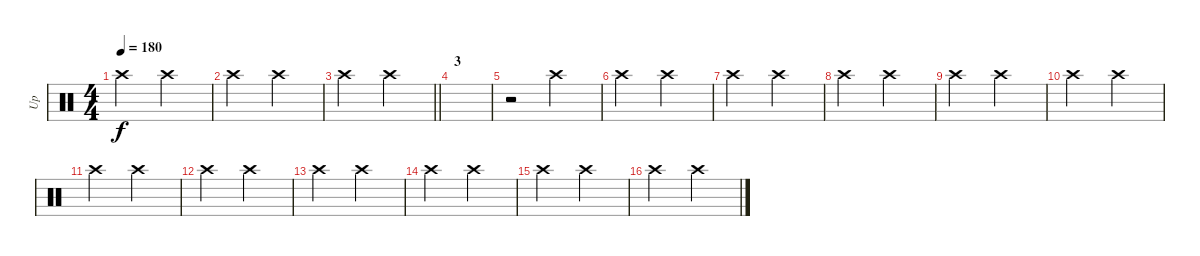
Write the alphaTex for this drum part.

\track ("Up" "Up") {instrument percussion}
\staff {score}
\articulation defaults
\ts (4 4)
\tempo 180
\clef neutral
\ks c "Crash high (hit)".2{dy f} "Crash high (hit)".2
|
"Crash high (hit)".2 "Crash high (hit)".2 |
\barLineRight lightlight "Crash high (hit)".2 "Crash high (hit)".2
|
\section ("" "3")
|
r.2 "Crash high (hit)".2 |
"Crash high (hit)".2 "Crash high (hit)".2 |
"Crash high (hit)".2 "Crash high (hit)".2 |
"Crash high (hit)".2 "Crash high (hit)".2 |
"Crash high (hit)".2 "Crash high (hit)".2 |
"Crash high (hit)".2 "Crash high (hit)".2 |
"Crash high (hit)".2 "Crash high (hit)".2 |
"Crash high (hit)".2 "Crash high (hit)".2 |
"Crash high (hit)".2 "Crash high (hit)".2 |
"Crash high (hit)".2 "Crash high (hit)".2 |
"Crash high (hit)".2 "Crash high (hit)".2 |
"Crash high (hit)".2 "Crash high (hit)".2
